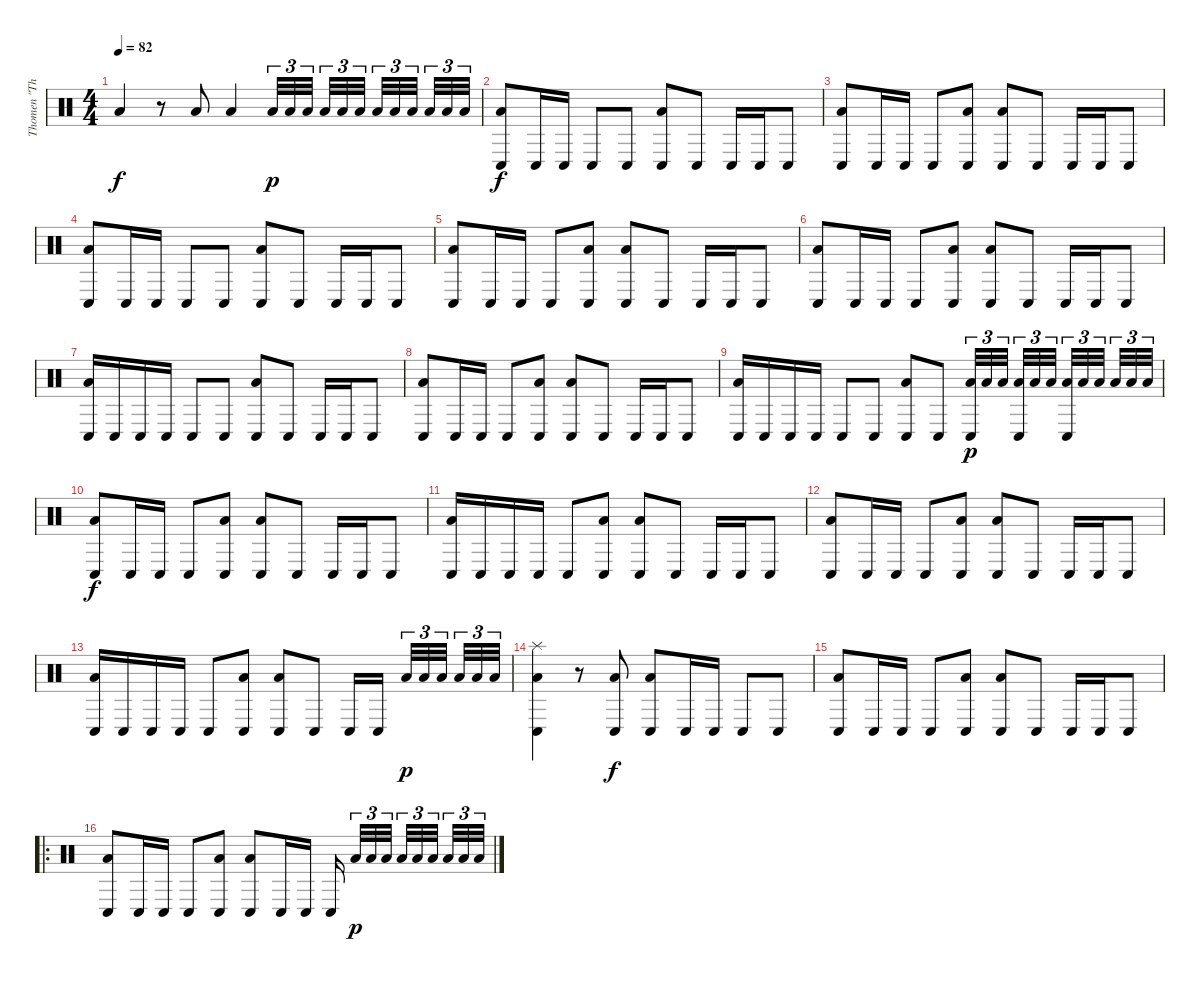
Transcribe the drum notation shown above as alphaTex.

\track ("Thomen \"The Omen\" Stauch " "Thomen \"Th") {instrument percussion}
\staff {score}
\articulation defaults
\ts (4 4)
\tempo 82
\clef neutral
\ks c "Low Floor Tom (hit)".4{dy f}
r.8 "Low Floor Tom (hit)".8 "Low Floor Tom (hit)".4 "Low Floor Tom (hit)".32{tu (3 2) dy p} "Low Floor Tom (hit)".32{tu (3 2)} "Low Floor Tom (hit)".32{tu (3 2)} "Low Floor Tom (hit)".32{tu (3 2)} "Low Floor Tom (hit)".32{tu (3 2)} "Low Floor Tom (hit)".32{tu (3 2)} "Low Floor Tom (hit)".32{tu (3 2)} "Low Floor Tom (hit)".32{tu (3 2)} "Low Floor Tom (hit)".32{tu (3 2)} "Low Floor Tom (hit)".32{tu (3 2)} "Low Floor Tom (hit)".32{tu (3 2)} "Low Floor Tom (hit)".32{tu (3 2)} |
("Low Floor Tom (hit)" "Conga low (hit)").8{dy f} "Conga low (hit)".16 "Conga low (hit)".16 "Conga low (hit)".8 "Conga low (hit)".8 ("Low Floor Tom (hit)" "Conga low (hit)").8 "Conga low (hit)".8 "Conga low (hit)".16 "Conga low (hit)".16 "Conga low (hit)".8 |
("Low Floor Tom (hit)" "Conga low (hit)").8 "Conga low (hit)".16 "Conga low (hit)".16 "Conga low (hit)".8 ("Low Floor Tom (hit)" "Conga low (hit)").8 ("Low Floor Tom (hit)" "Conga low (hit)").8 "Conga low (hit)".8 "Conga low (hit)".16 "Conga low (hit)".16 "Conga low (hit)".8 |
("Low Floor Tom (hit)" "Conga low (hit)").8 "Conga low (hit)".16 "Conga low (hit)".16 "Conga low (hit)".8 "Conga low (hit)".8 ("Low Floor Tom (hit)" "Conga low (hit)").8 "Conga low (hit)".8 "Conga low (hit)".16 "Conga low (hit)".16 "Conga low (hit)".8 |
("Low Floor Tom (hit)" "Conga low (hit)").8 "Conga low (hit)".16 "Conga low (hit)".16 "Conga low (hit)".8 ("Low Floor Tom (hit)" "Conga low (hit)").8 ("Low Floor Tom (hit)" "Conga low (hit)").8 "Conga low (hit)".8 "Conga low (hit)".16 "Conga low (hit)".16 "Conga low (hit)".8 |
("Low Floor Tom (hit)" "Conga low (hit)").8 "Conga low (hit)".16 "Conga low (hit)".16 "Conga low (hit)".8 ("Low Floor Tom (hit)" "Conga low (hit)").8 ("Low Floor Tom (hit)" "Conga low (hit)").8 "Conga low (hit)".8 "Conga low (hit)".16 "Conga low (hit)".16 "Conga low (hit)".8 |
("Low Floor Tom (hit)" "Conga low (hit)").16 "Conga low (hit)".16 "Conga low (hit)".16 "Conga low (hit)".16 "Conga low (hit)".8 "Conga low (hit)".8 ("Low Floor Tom (hit)" "Conga low (hit)").8 "Conga low (hit)".8 "Conga low (hit)".16 "Conga low (hit)".16 "Conga low (hit)".8 |
("Low Floor Tom (hit)" "Conga low (hit)").8 "Conga low (hit)".16 "Conga low (hit)".16 "Conga low (hit)".8 ("Low Floor Tom (hit)" "Conga low (hit)").8 ("Low Floor Tom (hit)" "Conga low (hit)").8 "Conga low (hit)".8 "Conga low (hit)".16 "Conga low (hit)".16 "Conga low (hit)".8 |
("Low Floor Tom (hit)" "Conga low (hit)").16 "Conga low (hit)".16 "Conga low (hit)".16 "Conga low (hit)".16 "Conga low (hit)".8 "Conga low (hit)".8 ("Low Floor Tom (hit)" "Conga low (hit)").8 "Conga low (hit)".8 ("Low Floor Tom (hit)" "Conga low (hit)").32{tu (3 2) dy p} "Low Floor Tom (hit)".32{tu (3 2)} "Low Floor Tom (hit)".32{tu (3 2)} ("Low Floor Tom (hit)" "Conga low (hit)").32{tu (3 2)} "Low Floor Tom (hit)".32{tu (3 2)} "Low Floor Tom (hit)".32{tu (3 2)} ("Low Floor Tom (hit)" "Conga low (hit)").32{tu (3 2)} "Low Floor Tom (hit)".32{tu (3 2)} "Low Floor Tom (hit)".32{tu (3 2)} "Low Floor Tom (hit)".32{tu (3 2)} "Low Floor Tom (hit)".32{tu (3 2)} "Low Floor Tom (hit)".32{tu (3 2)} |
("Low Floor Tom (hit)" "Conga low (hit)").8{dy f} "Conga low (hit)".16 "Conga low (hit)".16 "Conga low (hit)".8 ("Low Floor Tom (hit)" "Conga low (hit)").8 ("Low Floor Tom (hit)" "Conga low (hit)").8 "Conga low (hit)".8 "Conga low (hit)".16 "Conga low (hit)".16 "Conga low (hit)".8 |
("Low Floor Tom (hit)" "Conga low (hit)").16 "Conga low (hit)".16 "Conga low (hit)".16 "Conga low (hit)".16 "Conga low (hit)".8 ("Low Floor Tom (hit)" "Conga low (hit)").8 ("Low Floor Tom (hit)" "Conga low (hit)").8 "Conga low (hit)".8 "Conga low (hit)".16 "Conga low (hit)".16 "Conga low (hit)".8 |
("Low Floor Tom (hit)" "Conga low (hit)").8 "Conga low (hit)".16 "Conga low (hit)".16 "Conga low (hit)".8 ("Low Floor Tom (hit)" "Conga low (hit)").8 ("Low Floor Tom (hit)" "Conga low (hit)").8 "Conga low (hit)".8 "Conga low (hit)".16 "Conga low (hit)".16 "Conga low (hit)".8 |
("Low Floor Tom (hit)" "Conga low (hit)").16 "Conga low (hit)".16 "Conga low (hit)".16 "Conga low (hit)".16 "Conga low (hit)".8 ("Low Floor Tom (hit)" "Conga low (hit)").8 ("Low Floor Tom (hit)" "Conga low (hit)").8 "Conga low (hit)".8 "Conga low (hit)".16 "Conga low (hit)".16 "Low Floor Tom (hit)".32{tu (3 2) dy p} "Low Floor Tom (hit)".32{tu (3 2)} "Low Floor Tom (hit)".32{tu (3 2)} "Low Floor Tom (hit)".32{tu (3 2)} "Low Floor Tom (hit)".32{tu (3 2)} "Low Floor Tom (hit)".32{tu (3 2)} |
("Low Floor Tom (hit)" "Conga low (hit)" "Splash (hit)").4 r.8 ("Low Floor Tom (hit)" "Conga low (hit)").8{dy f} ("Low Floor Tom (hit)" "Conga low (hit)").8 "Conga low (hit)".16 "Conga low (hit)".16 "Conga low (hit)".8 "Conga low (hit)".8 |
("Low Floor Tom (hit)" "Conga low (hit)").8 "Conga low (hit)".16 "Conga low (hit)".16 "Conga low (hit)".8 ("Low Floor Tom (hit)" "Conga low (hit)").8 ("Low Floor Tom (hit)" "Conga low (hit)").8 "Conga low (hit)".8 "Conga low (hit)".16 "Conga low (hit)".16 "Conga low (hit)".8 |
\ro
("Low Floor Tom (hit)" "Conga low (hit)").8 "Conga low (hit)".16 "Conga low (hit)".16 "Conga low (hit)".8 ("Low Floor Tom (hit)" "Conga low (hit)").8 ("Low Floor Tom (hit)" "Conga low (hit)").8 "Conga low (hit)".16 "Conga low (hit)".16 "Conga low (hit)".16 "Low Floor Tom (hit)".32{tu (3 2) dy p} "Low Floor Tom (hit)".32{tu (3 2)} "Low Floor Tom (hit)".32{tu (3 2)} "Low Floor Tom (hit)".32{tu (3 2)} "Low Floor Tom (hit)".32{tu (3 2)} "Low Floor Tom (hit)".32{tu (3 2)} "Low Floor Tom (hit)".32{tu (3 2)} "Low Floor Tom (hit)".32{tu (3 2)} "Low Floor Tom (hit)".32{tu (3 2)}
